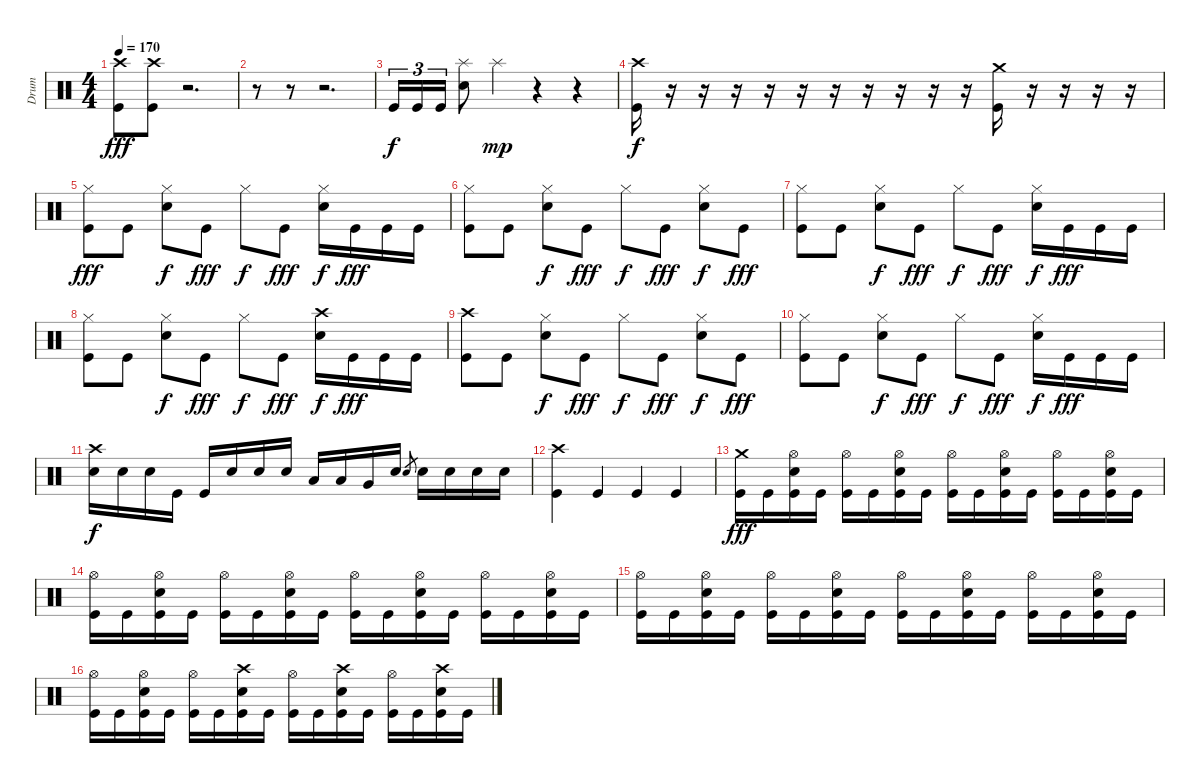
\track ("Drum" "Drum") {instrument percussion}
\staff {score}
\articulation defaults
\ts (4 4)
\tempo 170
\clef neutral
\ks c
("Crash high (hit)" "Kick (hit)").8{dy fff} ("Crash high (hit)" "Kick (hit)").8 r.2{d} |
r.8 r.8 r.2{d} |
"Kick (hit)".16{tu (3 2) dy f} "Kick (hit)".16{tu (3 2)} "Kick (hit)".16{tu (3 2)} ("Splash (hit)" "Snare (hit) 2").8 "Splash (hit)".4{dy mp} r.4 r.4 |
("Crash high (hit)" "Kick (hit)").16{dy f} r.16 r.16{volume 0} r.16 r.16 r.16 r.16 r.16 r.16 r.16 r.16{volume 12} ("Crash medium (hit)" "Kick (hit)").16 r.16 r.16{volume 0} r.16 r.16 |
("Hi-Hat (closed)" "Kick (hit)").8{dy fff volume 12} "Kick (hit)".8 ("Hi-Hat (closed)" "Snare (hit) 2").8{dy f} "Kick (hit)".8{dy fff} "Hi-Hat (closed)".8{dy f} "Kick (hit)".8{dy fff} ("Hi-Hat (closed)" "Snare (hit) 2").16{dy f} "Kick (hit)".16{dy fff} "Kick (hit)".16 "Kick (hit)".16 |
("Hi-Hat (closed)" "Kick (hit)").8 "Kick (hit)".8 ("Hi-Hat (closed)" "Snare (hit) 2").8{dy f} "Kick (hit)".8{dy fff} "Hi-Hat (closed)".8{dy f} "Kick (hit)".8{dy fff} ("Hi-Hat (closed)" "Snare (hit) 2").8{dy f} "Kick (hit)".8{dy fff} |
("Hi-Hat (closed)" "Kick (hit)").8 "Kick (hit)".8 ("Hi-Hat (closed)" "Snare (hit) 2").8{dy f} "Kick (hit)".8{dy fff} "Hi-Hat (closed)".8{dy f} "Kick (hit)".8{dy fff} ("Hi-Hat (closed)" "Snare (hit) 2").16{dy f} "Kick (hit)".16{dy fff} "Kick (hit)".16 "Kick (hit)".16 |
("Hi-Hat (closed)" "Kick (hit)").8 "Kick (hit)".8 ("Hi-Hat (closed)" "Snare (hit) 2").8{dy f} "Kick (hit)".8{dy fff} "Hi-Hat (closed)".8{dy f} "Kick (hit)".8{dy fff} ("Crash high (hit)" "Snare (hit) 2").16{dy f} "Kick (hit)".16{dy fff} "Kick (hit)".16 "Kick (hit)".16 |
("Crash high (hit)" "Kick (hit)").8 "Kick (hit)".8 ("Hi-Hat (closed)" "Snare (hit) 2").8{dy f} "Kick (hit)".8{dy fff} "Hi-Hat (closed)".8{dy f} "Kick (hit)".8{dy fff} ("Hi-Hat (closed)" "Snare (hit) 2").8{dy f} "Kick (hit)".8{dy fff} |
("Hi-Hat (closed)" "Kick (hit)").8 "Kick (hit)".8 ("Hi-Hat (closed)" "Snare (hit) 2").8{dy f} "Kick (hit)".8{dy fff} "Hi-Hat (closed)".8{dy f} "Kick (hit)".8{dy fff} ("Hi-Hat (closed)" "Snare (hit) 2").16{dy f} "Kick (hit)".16{dy fff} "Kick (hit)".16 "Kick (hit)".16 |
("Crash high (hit)" "Snare (hit) 2").16{dy f} "Snare (hit) 2".16 "Snare (hit) 2".16 "Kick (hit)".16 "Kick (hit)".16 "Snare (hit) 2".16 "Snare (hit) 2".16 "Snare (hit) 2".16 "Low Tom (hit)".16 "Low Tom (hit)".16 "Very Low Tom (hit)".16 "Snare (hit) 2".16 "Snare (hit) 2".8{gr} "Snare (hit) 2".16 "Snare (hit) 2".16 "Snare (hit) 2".16 "Snare (hit) 2".16 |
("Crash high (hit)" "Kick (hit)").4 "Kick (hit)".4 "Kick (hit)".4 "Kick (hit)".4 |
("Crash medium (hit)" "Kick (hit)").16{dy fff} "Kick (hit)".16 ("Hi-Hat (open)" "Snare (hit) 2" "Kick (hit)").16 "Kick (hit)".16 ("Hi-Hat (open)" "Kick (hit)").16 "Kick (hit)".16 ("Hi-Hat (open)" "Snare (hit) 2" "Kick (hit)").16 "Kick (hit)".16 ("Hi-Hat (open)" "Kick (hit)").16 "Kick (hit)".16 ("Hi-Hat (open)" "Snare (hit) 2" "Kick (hit)").16 "Kick (hit)".16 ("Hi-Hat (open)" "Kick (hit)").16 "Kick (hit)".16 ("Hi-Hat (open)" "Snare (hit) 2" "Kick (hit)").16 "Kick (hit)".16 |
("Hi-Hat (open)" "Kick (hit)").16 "Kick (hit)".16 ("Hi-Hat (open)" "Snare (hit) 2" "Kick (hit)").16 "Kick (hit)".16 ("Hi-Hat (open)" "Kick (hit)").16 "Kick (hit)".16 ("Hi-Hat (open)" "Snare (hit) 2" "Kick (hit)").16 "Kick (hit)".16 ("Hi-Hat (open)" "Kick (hit)").16 "Kick (hit)".16 ("Hi-Hat (open)" "Snare (hit) 2" "Kick (hit)").16 "Kick (hit)".16 ("Hi-Hat (open)" "Kick (hit)").16 "Kick (hit)".16 ("Hi-Hat (open)" "Snare (hit) 2" "Kick (hit)").16 "Kick (hit)".16 |
("Hi-Hat (open)" "Kick (hit)").16 "Kick (hit)".16 ("Hi-Hat (open)" "Snare (hit) 2" "Kick (hit)").16 "Kick (hit)".16 ("Hi-Hat (open)" "Kick (hit)").16 "Kick (hit)".16 ("Hi-Hat (open)" "Snare (hit) 2" "Kick (hit)").16 "Kick (hit)".16 ("Hi-Hat (open)" "Kick (hit)").16 "Kick (hit)".16 ("Hi-Hat (open)" "Snare (hit) 2" "Kick (hit)").16 "Kick (hit)".16 ("Hi-Hat (open)" "Kick (hit)").16 "Kick (hit)".16 ("Hi-Hat (open)" "Snare (hit) 2" "Kick (hit)").16 "Kick (hit)".16 |
("Hi-Hat (open)" "Kick (hit)").16 "Kick (hit)".16 ("Hi-Hat (open)" "Snare (hit) 2" "Kick (hit)").16 "Kick (hit)".16 ("Hi-Hat (open)" "Kick (hit)").16 "Kick (hit)".16 ("Crash high (hit)" "Snare (hit) 2" "Kick (hit)").16 "Kick (hit)".16 ("Hi-Hat (open)" "Kick (hit)").16 "Kick (hit)".16 ("Crash high (hit)" "Snare (hit) 2" "Kick (hit)").16 "Kick (hit)".16 ("Hi-Hat (open)" "Kick (hit)").16 "Kick (hit)".16 ("Crash high (hit)" "Snare (hit) 2" "Kick (hit)").16 "Kick (hit)".16
